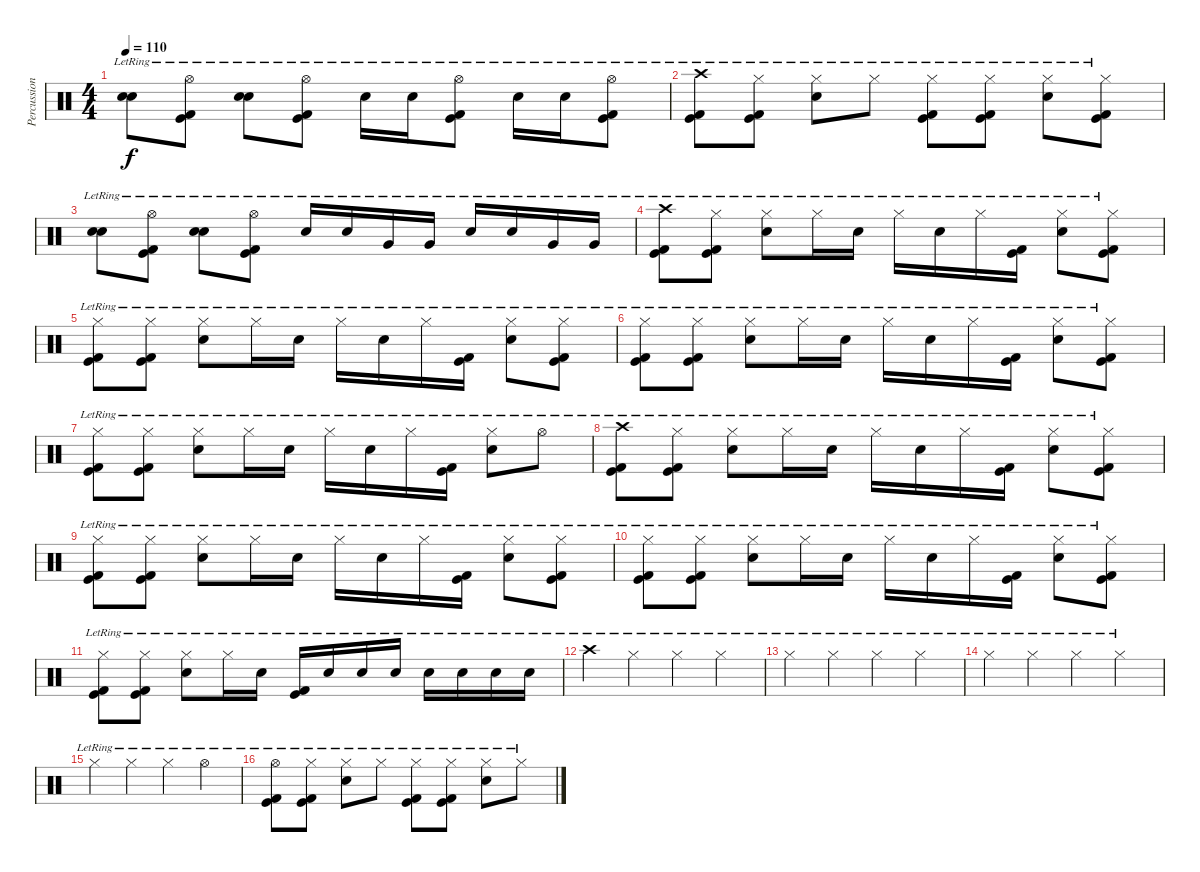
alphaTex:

\track ("Percussion" "Percussion") {instrument percussion}
\staff {score}
\articulation defaults
\ts (4 4)
\tempo 110
\clef neutral
\ks c
("Snare (hit) 2"{lr} "Snare (hit) 2"{lr}).8{bd 120 dy f} ("Hi-Hat (open)"{lr} "Kick (hit) 2"{lr} "Kick (hit)"{lr}).8 ("Snare (hit) 2"{lr} "Snare (hit) 2"{lr}).8{bd 120} ("Hi-Hat (open)"{lr} "Kick (hit) 2"{lr} "Kick (hit)"{lr}).8 "Snare (hit) 2"{lr}.16 "Snare (hit) 2"{lr}.16 ("Hi-Hat (open)"{lr} "Kick (hit) 2"{lr} "Kick (hit)"{lr}).8 "Snare (hit) 2"{lr}.16 "Snare (hit) 2"{lr}.16 ("Hi-Hat (open)"{lr} "Kick (hit) 2"{lr} "Kick (hit)"{lr}).8 |
("Crash high (hit)"{lr} "Kick (hit) 2"{lr} "Kick (hit)"{lr}).8 ("Hi-Hat (closed)"{lr} "Kick (hit) 2"{lr} "Kick (hit)"{lr}).8 ("Hi-Hat (closed)"{lr} "Snare (hit) 2"{lr}).8 "Hi-Hat (closed)"{lr}.8 ("Hi-Hat (closed)"{lr} "Kick (hit) 2"{lr} "Kick (hit)"{lr}).8 ("Hi-Hat (closed)"{lr} "Kick (hit) 2"{lr} "Kick (hit)"{lr}).8 ("Hi-Hat (closed)"{lr} "Snare (hit) 2"{lr}).8 ("Hi-Hat (closed)"{lr} "Kick (hit) 2"{lr} "Kick (hit)"{lr}).8 |
("Snare (hit) 2"{lr} "Snare (hit) 2"{lr}).8{bd 120} ("Hi-Hat (open)"{lr} "Kick (hit) 2"{lr} "Kick (hit)"{lr}).8 ("Snare (hit) 2"{lr} "Snare (hit) 2"{lr}).8{bd 60} ("Hi-Hat (open)"{lr} "Kick (hit) 2"{lr} "Kick (hit)"{lr}).8 "Snare (hit) 2"{lr}.16 "Snare (hit) 2"{lr}.16 "Very Low Tom (hit)"{lr}.16 "Very Low Tom (hit)"{lr}.16 "Snare (hit) 2"{lr}.16 "Snare (hit) 2"{lr}.16 "Very Low Tom (hit)"{lr}.16 "Very Low Tom (hit)"{lr}.16 |
("Crash high (hit)"{lr} "Kick (hit) 2"{lr} "Kick (hit)"{lr}).8 ("Hi-Hat (closed)"{lr} "Kick (hit) 2"{lr} "Kick (hit)"{lr}).8 ("Hi-Hat (closed)"{lr} "Snare (hit) 2"{lr}).8 "Hi-Hat (closed)"{lr}.16 "Snare (hit) 2"{lr}.16 "Hi-Hat (closed)"{lr}.16 "Snare (hit) 2"{lr}.16 "Hi-Hat (closed)"{lr}.16 ("Kick (hit) 2"{lr} "Kick (hit)"{lr}).16 ("Hi-Hat (closed)"{lr} "Snare (hit) 2"{lr}).8 ("Hi-Hat (closed)"{lr} "Kick (hit) 2"{lr} "Kick (hit)"{lr}).8 |
("Hi-Hat (closed)"{lr} "Kick (hit) 2"{lr} "Kick (hit)"{lr}).8 ("Hi-Hat (closed)"{lr} "Kick (hit) 2"{lr} "Kick (hit)"{lr}).8 ("Hi-Hat (closed)"{lr} "Snare (hit) 2"{lr}).8 "Hi-Hat (closed)"{lr}.16 "Snare (hit) 2"{lr}.16 "Hi-Hat (closed)"{lr}.16 "Snare (hit) 2"{lr}.16 "Hi-Hat (closed)"{lr}.16 ("Kick (hit) 2"{lr} "Kick (hit)"{lr}).16 ("Hi-Hat (closed)"{lr} "Snare (hit) 2"{lr}).8 ("Hi-Hat (closed)"{lr} "Kick (hit) 2"{lr} "Kick (hit)"{lr}).8 |
("Hi-Hat (closed)"{lr} "Kick (hit) 2"{lr} "Kick (hit)"{lr}).8 ("Hi-Hat (closed)"{lr} "Kick (hit) 2"{lr} "Kick (hit)"{lr}).8 ("Hi-Hat (closed)"{lr} "Snare (hit) 2"{lr}).8 "Hi-Hat (closed)"{lr}.16 "Snare (hit) 2"{lr}.16 "Hi-Hat (closed)"{lr}.16 "Snare (hit) 2"{lr}.16 "Hi-Hat (closed)"{lr}.16 ("Kick (hit) 2"{lr} "Kick (hit)"{lr}).16 ("Hi-Hat (closed)"{lr} "Snare (hit) 2"{lr}).8 ("Hi-Hat (closed)"{lr} "Kick (hit) 2"{lr} "Kick (hit)"{lr}).8 |
("Hi-Hat (closed)"{lr} "Kick (hit) 2"{lr} "Kick (hit)"{lr}).8 ("Hi-Hat (closed)"{lr} "Kick (hit) 2"{lr} "Kick (hit)"{lr}).8 ("Hi-Hat (closed)"{lr} "Snare (hit) 2"{lr}).8 "Hi-Hat (closed)"{lr}.16 "Snare (hit) 2"{lr}.16 "Hi-Hat (closed)"{lr}.16 "Snare (hit) 2"{lr}.16 "Hi-Hat (closed)"{lr}.16 ("Kick (hit) 2"{lr} "Kick (hit)"{lr}).16 ("Hi-Hat (closed)"{lr} "Snare (hit) 2"{lr}).8 "Hi-Hat (open)"{lr}.8 |
("Crash high (hit)"{lr} "Kick (hit) 2"{lr} "Kick (hit)"{lr}).8 ("Hi-Hat (closed)"{lr} "Kick (hit) 2"{lr} "Kick (hit)"{lr}).8 ("Hi-Hat (closed)"{lr} "Snare (hit) 2"{lr}).8 "Hi-Hat (closed)"{lr}.16 "Snare (hit) 2"{lr}.16 "Hi-Hat (closed)"{lr}.16 "Snare (hit) 2"{lr}.16 "Hi-Hat (closed)"{lr}.16 ("Kick (hit) 2"{lr} "Kick (hit)"{lr}).16 ("Hi-Hat (closed)"{lr} "Snare (hit) 2"{lr}).8 ("Hi-Hat (closed)"{lr} "Kick (hit) 2"{lr} "Kick (hit)"{lr}).8 |
("Hi-Hat (closed)"{lr} "Kick (hit) 2"{lr} "Kick (hit)"{lr}).8 ("Hi-Hat (closed)"{lr} "Kick (hit) 2"{lr} "Kick (hit)"{lr}).8 ("Hi-Hat (closed)"{lr} "Snare (hit) 2"{lr}).8 "Hi-Hat (closed)"{lr}.16 "Snare (hit) 2"{lr}.16 "Hi-Hat (closed)"{lr}.16 "Snare (hit) 2"{lr}.16 "Hi-Hat (closed)"{lr}.16 ("Kick (hit) 2"{lr} "Kick (hit)"{lr}).16 ("Hi-Hat (closed)"{lr} "Snare (hit) 2"{lr}).8 ("Hi-Hat (closed)"{lr} "Kick (hit) 2"{lr} "Kick (hit)"{lr}).8 |
("Hi-Hat (closed)"{lr} "Kick (hit) 2"{lr} "Kick (hit)"{lr}).8 ("Hi-Hat (closed)"{lr} "Kick (hit) 2"{lr} "Kick (hit)"{lr}).8 ("Hi-Hat (closed)"{lr} "Snare (hit) 2"{lr}).8 "Hi-Hat (closed)"{lr}.16 "Snare (hit) 2"{lr}.16 "Hi-Hat (closed)"{lr}.16 "Snare (hit) 2"{lr}.16 "Hi-Hat (closed)"{lr}.16 ("Kick (hit) 2"{lr} "Kick (hit)"{lr}).16 ("Hi-Hat (closed)"{lr} "Snare (hit) 2"{lr}).8 ("Hi-Hat (closed)"{lr} "Kick (hit) 2"{lr} "Kick (hit)"{lr}).8 |
("Hi-Hat (closed)"{lr} "Kick (hit) 2"{lr} "Kick (hit)"{lr}).8 ("Hi-Hat (closed)"{lr} "Kick (hit) 2"{lr} "Kick (hit)"{lr}).8 ("Hi-Hat (closed)"{lr} "Snare (hit) 2"{lr}).8 "Hi-Hat (closed)"{lr}.16 "Snare (hit) 2"{lr}.16 ("Kick (hit) 2"{lr} "Kick (hit)"{lr}).16 "Snare (hit) 2"{lr}.16 "Snare (hit) 2"{lr}.16 "Snare (hit) 2"{lr}.16 "Snare (hit) 2"{lr}.16 "Snare (hit) 2"{lr}.16 "Snare (hit) 2"{lr}.16 "Snare (hit) 2"{lr}.16 |
"Crash high (hit)"{lr}.4 "Hi-Hat (closed)"{lr}.4 "Hi-Hat (closed)"{lr}.4 "Hi-Hat (closed)"{lr}.4 |
"Hi-Hat (closed)"{lr}.4 "Hi-Hat (closed)"{lr}.4 "Hi-Hat (closed)"{lr}.4 "Hi-Hat (closed)"{lr}.4 |
"Hi-Hat (closed)"{lr}.4 "Hi-Hat (closed)"{lr}.4 "Hi-Hat (closed)"{lr}.4 "Hi-Hat (closed)"{lr}.4 |
"Hi-Hat (closed)"{lr}.4 "Hi-Hat (closed)"{lr}.4 "Hi-Hat (closed)"{lr}.4 "Hi-Hat (open)"{lr}.4 |
("Hi-Hat (open)"{lr} "Kick (hit) 2"{lr} "Kick (hit)"{lr}).8 ("Hi-Hat (closed)"{lr} "Kick (hit) 2"{lr} "Kick (hit)"{lr}).8 ("Hi-Hat (closed)"{lr} "Snare (hit) 2"{lr}).8 "Hi-Hat (closed)"{lr}.8 ("Hi-Hat (closed)"{lr} "Kick (hit) 2"{lr} "Kick (hit)"{lr}).8 ("Hi-Hat (closed)"{lr} "Kick (hit) 2"{lr} "Kick (hit)"{lr}).8 ("Hi-Hat (closed)"{lr} "Snare (hit) 2"{lr}).8 "Hi-Hat (closed)"{lr}.8
